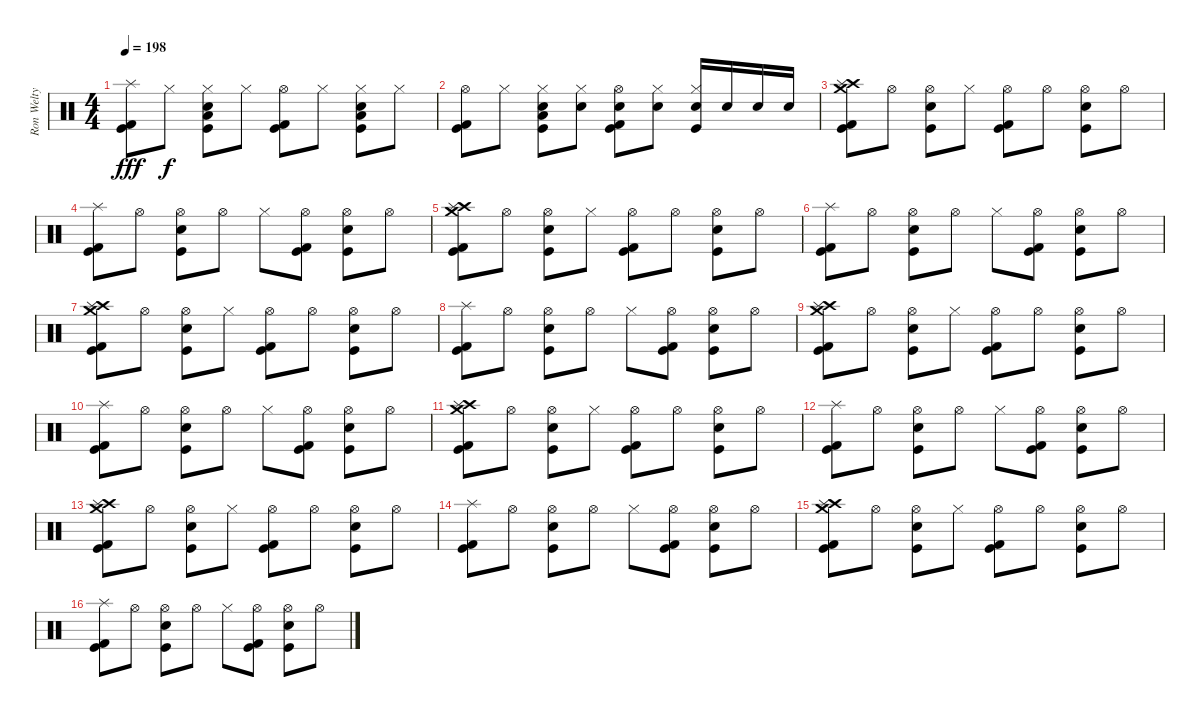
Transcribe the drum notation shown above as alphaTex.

\track ("Ron Welty" "Ron Welty") {instrument percussion}
\staff {score}
\articulation defaults
\ts (4 4)
\tempo 198
\clef neutral
\ks c
("Splash (hit)" "Kick (hit) 2" "Kick (hit)").8{dy fff} "Hi-Hat (closed)".8{dy f} ("Hi-Hat (closed)" "Electric Snare (hit)" "Low Tom (hit)" "Kick (hit)").8 "Hi-Hat (closed)".8 ("Hi-Hat (open)" "Kick (hit) 2" "Kick (hit)").8 "Hi-Hat (closed)".8 ("Hi-Hat (closed)" "Electric Snare (hit)" "Low Tom (hit)" "Kick (hit)").8 "Hi-Hat (closed)".8 |
("Hi-Hat (open)" "Kick (hit) 2" "Kick (hit)").8 "Hi-Hat (closed)".8 ("Hi-Hat (closed)" "Electric Snare (hit)" "Low Tom (hit)" "Kick (hit)").8 ("Hi-Hat (closed)" "Electric Snare (hit)").8 ("Hi-Hat (open)" "Electric Snare (hit)" "Kick (hit) 2" "Kick (hit)").8 ("Hi-Hat (closed)" "Electric Snare (hit)").8 ("Hi-Hat (closed)" "Electric Snare (hit)" "Kick (hit)").16 "Electric Snare (hit)".16 "Electric Snare (hit)".16 "Electric Snare (hit)".16 |
("Crash medium (hit)" "Crash high (hit)" "Splash (hit)" "Kick (hit) 2" "Kick (hit)").8 "Hi-Hat (open)".8 ("Hi-Hat (open)" "Electric Snare (hit)" "Kick (hit)").8 "Hi-Hat (closed)".8 ("Hi-Hat (open)" "Kick (hit) 2" "Kick (hit)").8 "Hi-Hat (open)".8 ("Hi-Hat (open)" "Electric Snare (hit)" "Kick (hit)").8 "Hi-Hat (open)".8 |
("Splash (hit)" "Kick (hit) 2" "Kick (hit)").8 "Hi-Hat (open)".8 ("Hi-Hat (open)" "Electric Snare (hit)" "Kick (hit)").8 "Hi-Hat (open)".8 "Hi-Hat (closed)".8 ("Hi-Hat (open)" "Kick (hit) 2" "Kick (hit)").8 ("Hi-Hat (open)" "Electric Snare (hit)" "Kick (hit)").8 "Hi-Hat (open)".8 |
("Crash medium (hit)" "Crash high (hit)" "Splash (hit)" "Kick (hit) 2" "Kick (hit)").8 "Hi-Hat (open)".8 ("Hi-Hat (open)" "Electric Snare (hit)" "Kick (hit)").8 "Hi-Hat (closed)".8 ("Hi-Hat (open)" "Kick (hit) 2" "Kick (hit)").8 "Hi-Hat (open)".8 ("Hi-Hat (open)" "Electric Snare (hit)" "Kick (hit)").8 "Hi-Hat (open)".8 |
("Splash (hit)" "Kick (hit) 2" "Kick (hit)").8 "Hi-Hat (open)".8 ("Hi-Hat (open)" "Electric Snare (hit)" "Kick (hit)").8 "Hi-Hat (open)".8 "Hi-Hat (closed)".8 ("Hi-Hat (open)" "Kick (hit) 2" "Kick (hit)").8 ("Hi-Hat (open)" "Electric Snare (hit)" "Kick (hit)").8 "Hi-Hat (open)".8 |
("Crash medium (hit)" "Crash high (hit)" "Splash (hit)" "Kick (hit) 2" "Kick (hit)").8 "Hi-Hat (open)".8 ("Hi-Hat (open)" "Electric Snare (hit)" "Kick (hit)").8 "Hi-Hat (closed)".8 ("Hi-Hat (open)" "Kick (hit) 2" "Kick (hit)").8 "Hi-Hat (open)".8 ("Hi-Hat (open)" "Electric Snare (hit)" "Kick (hit)").8 "Hi-Hat (open)".8 |
("Splash (hit)" "Kick (hit) 2" "Kick (hit)").8 "Hi-Hat (open)".8 ("Hi-Hat (open)" "Electric Snare (hit)" "Kick (hit)").8 "Hi-Hat (open)".8 "Hi-Hat (closed)".8 ("Hi-Hat (open)" "Kick (hit) 2" "Kick (hit)").8 ("Hi-Hat (open)" "Electric Snare (hit)" "Kick (hit)").8 "Hi-Hat (open)".8 |
("Crash medium (hit)" "Crash high (hit)" "Splash (hit)" "Kick (hit) 2" "Kick (hit)").8 "Hi-Hat (open)".8 ("Hi-Hat (open)" "Electric Snare (hit)" "Kick (hit)").8 "Hi-Hat (closed)".8 ("Hi-Hat (open)" "Kick (hit) 2" "Kick (hit)").8 "Hi-Hat (open)".8 ("Hi-Hat (open)" "Electric Snare (hit)" "Kick (hit)").8 "Hi-Hat (open)".8 |
("Splash (hit)" "Kick (hit) 2" "Kick (hit)").8 "Hi-Hat (open)".8 ("Hi-Hat (open)" "Electric Snare (hit)" "Kick (hit)").8 "Hi-Hat (open)".8 "Hi-Hat (closed)".8 ("Hi-Hat (open)" "Kick (hit) 2" "Kick (hit)").8 ("Hi-Hat (open)" "Electric Snare (hit)" "Kick (hit)").8 "Hi-Hat (open)".8 |
("Crash medium (hit)" "Crash high (hit)" "Splash (hit)" "Kick (hit) 2" "Kick (hit)").8 "Hi-Hat (open)".8 ("Hi-Hat (open)" "Electric Snare (hit)" "Kick (hit)").8 "Hi-Hat (closed)".8 ("Hi-Hat (open)" "Kick (hit) 2" "Kick (hit)").8 "Hi-Hat (open)".8 ("Hi-Hat (open)" "Electric Snare (hit)" "Kick (hit)").8 "Hi-Hat (open)".8 |
("Splash (hit)" "Kick (hit) 2" "Kick (hit)").8 "Hi-Hat (open)".8 ("Hi-Hat (open)" "Electric Snare (hit)" "Kick (hit)").8 "Hi-Hat (open)".8 "Hi-Hat (closed)".8 ("Hi-Hat (open)" "Kick (hit) 2" "Kick (hit)").8 ("Hi-Hat (open)" "Electric Snare (hit)" "Kick (hit)").8 "Hi-Hat (open)".8 |
("Crash medium (hit)" "Crash high (hit)" "Splash (hit)" "Kick (hit) 2" "Kick (hit)").8 "Hi-Hat (open)".8 ("Hi-Hat (open)" "Electric Snare (hit)" "Kick (hit)").8 "Hi-Hat (closed)".8 ("Hi-Hat (open)" "Kick (hit) 2" "Kick (hit)").8 "Hi-Hat (open)".8 ("Hi-Hat (open)" "Electric Snare (hit)" "Kick (hit)").8 "Hi-Hat (open)".8 |
("Splash (hit)" "Kick (hit) 2" "Kick (hit)").8 "Hi-Hat (open)".8 ("Hi-Hat (open)" "Electric Snare (hit)" "Kick (hit)").8 "Hi-Hat (open)".8 "Hi-Hat (closed)".8 ("Hi-Hat (open)" "Kick (hit) 2" "Kick (hit)").8 ("Hi-Hat (open)" "Electric Snare (hit)" "Kick (hit)").8 "Hi-Hat (open)".8 |
("Crash medium (hit)" "Crash high (hit)" "Splash (hit)" "Kick (hit) 2" "Kick (hit)").8 "Hi-Hat (open)".8 ("Hi-Hat (open)" "Electric Snare (hit)" "Kick (hit)").8 "Hi-Hat (closed)".8 ("Hi-Hat (open)" "Kick (hit) 2" "Kick (hit)").8 "Hi-Hat (open)".8 ("Hi-Hat (open)" "Electric Snare (hit)" "Kick (hit)").8 "Hi-Hat (open)".8 |
("Splash (hit)" "Kick (hit) 2" "Kick (hit)").8 "Hi-Hat (open)".8 ("Hi-Hat (open)" "Electric Snare (hit)" "Kick (hit)").8 "Hi-Hat (open)".8 "Hi-Hat (closed)".8 ("Hi-Hat (open)" "Kick (hit) 2" "Kick (hit)").8 ("Hi-Hat (open)" "Electric Snare (hit)" "Kick (hit)").8 "Hi-Hat (open)".8
